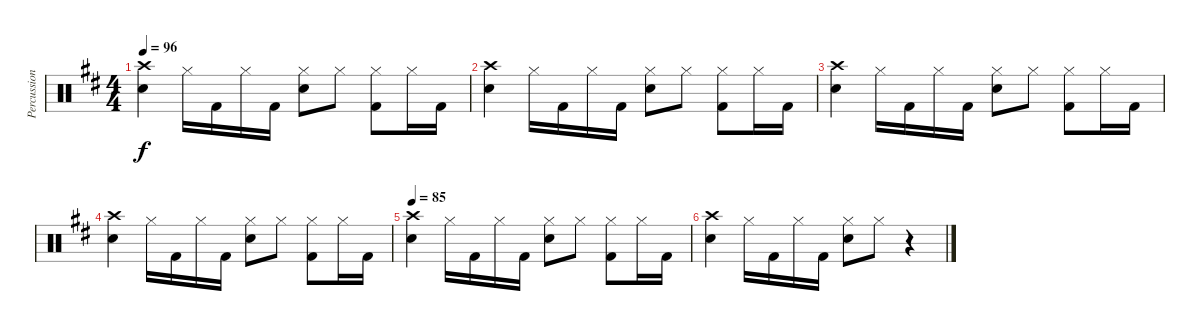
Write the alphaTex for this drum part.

\track ("Percussion" "Percussion") {instrument percussion}
\staff {score}
\articulation defaults
\ts (4 4)
\tempo 96
\clef neutral
\ks d
("Crash high (hit)" "Electric Snare (hit)").4{dy f} "Hi-Hat (closed)".16 "Kick (hit) 2".16 "Hi-Hat (closed)".16 "Kick (hit) 2".16 ("Hi-Hat (closed)" "Electric Snare (hit)").8 "Hi-Hat (closed)".8 ("Hi-Hat (closed)" "Kick (hit) 2").8 "Hi-Hat (closed)".16 "Kick (hit) 2".16 |
("Crash high (hit)" "Electric Snare (hit)").4{volume 8} "Hi-Hat (closed)".16 "Kick (hit) 2".16 "Hi-Hat (closed)".16 "Kick (hit) 2".16 ("Hi-Hat (closed)" "Electric Snare (hit)").8 "Hi-Hat (closed)".8 ("Hi-Hat (closed)" "Kick (hit) 2").8 "Hi-Hat (closed)".16 "Kick (hit) 2".16 |
("Crash high (hit)" "Electric Snare (hit)").4 "Hi-Hat (closed)".16 "Kick (hit) 2".16 "Hi-Hat (closed)".16 "Kick (hit) 2".16 ("Hi-Hat (closed)" "Electric Snare (hit)").8 "Hi-Hat (closed)".8 ("Hi-Hat (closed)" "Kick (hit) 2").8 "Hi-Hat (closed)".16 "Kick (hit) 2".16 |
("Crash high (hit)" "Electric Snare (hit)").4 "Hi-Hat (closed)".16 "Kick (hit) 2".16 "Hi-Hat (closed)".16 "Kick (hit) 2".16 ("Hi-Hat (closed)" "Electric Snare (hit)").8 "Hi-Hat (closed)".8 ("Hi-Hat (closed)" "Kick (hit) 2").8 "Hi-Hat (closed)".16 "Kick (hit) 2".16 |
\tempo 85
("Crash high (hit)" "Electric Snare (hit)").4{volume 2} "Hi-Hat (closed)".16 "Kick (hit) 2".16 "Hi-Hat (closed)".16 "Kick (hit) 2".16 ("Hi-Hat (closed)" "Electric Snare (hit)").8 "Hi-Hat (closed)".8 ("Hi-Hat (closed)" "Kick (hit) 2").8 "Hi-Hat (closed)".16 "Kick (hit) 2".16 |
("Crash high (hit)" "Electric Snare (hit)").4 "Hi-Hat (closed)".16 "Kick (hit) 2".16 "Hi-Hat (closed)".16 "Kick (hit) 2".16 ("Hi-Hat (closed)" "Electric Snare (hit)").8 "Hi-Hat (closed)".8 r.4
